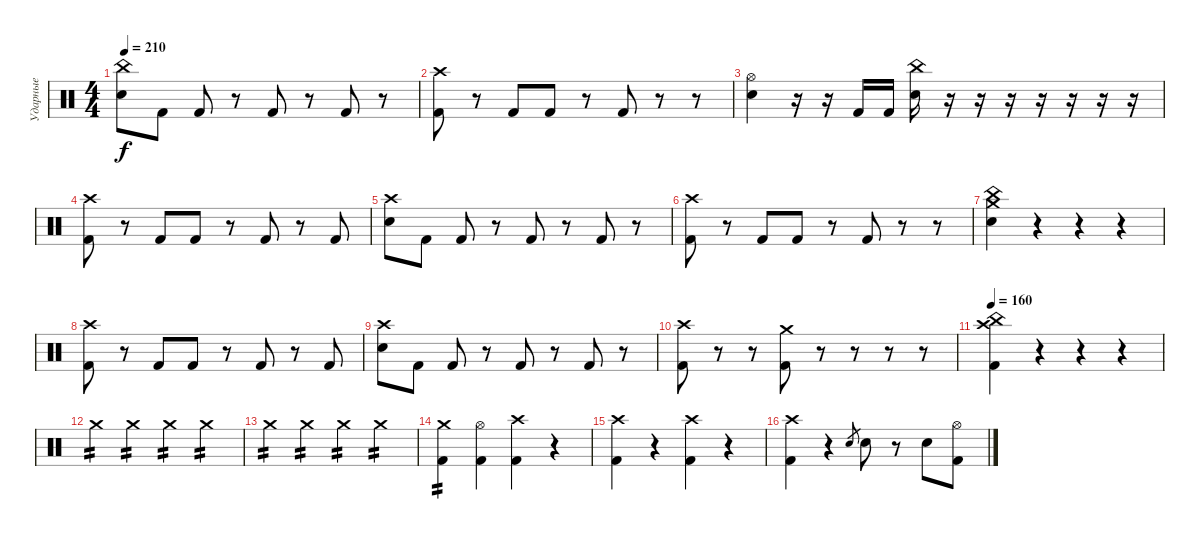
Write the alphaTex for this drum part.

\track ("Ударные" "Ударные") {instrument percussion}
\staff {score}
\articulation defaults
\ts (4 4)
\tempo 210
\clef neutral
\ks c
("Electric Snare (hit)" "China (hit)").8{dy f} "Kick (hit) 2".8 "Kick (hit) 2".8 r.8 "Kick (hit) 2".8 r.8 "Kick (hit) 2".8 r.8 |
("Kick (hit) 2" "Crash high (hit)").8 r.8 "Kick (hit) 2".8 "Kick (hit) 2".8 r.8 "Kick (hit) 2".8 r.8 r.8 |
("Electric Snare (hit)" "Hi-Hat (open)").4 r.16 r.16 "Kick (hit) 2".16 "Kick (hit) 2".16 ("Electric Snare (hit)" "China (hit)").16 r.16 r.16 r.16 r.16 r.16 r.16 r.16 |
("Kick (hit) 2" "Crash high (hit)").8 r.8 "Kick (hit) 2".8 "Kick (hit) 2".8 r.8 "Kick (hit) 2".8 r.8 "Kick (hit) 2".8 |
("Electric Snare (hit)" "Crash high (hit)").8 "Kick (hit) 2".8 "Kick (hit) 2".8 r.8 "Kick (hit) 2".8 r.8 "Kick (hit) 2".8 r.8 |
("Kick (hit) 2" "Crash high (hit)").8 r.8 "Kick (hit) 2".8 "Kick (hit) 2".8 r.8 "Kick (hit) 2".8 r.8 r.8 |
("Electric Snare (hit)" "Crash medium (hit)" "China (hit)").4 r.4 r.4 r.4 |
("Kick (hit) 2" "Crash high (hit)").8 r.8 "Kick (hit) 2".8 "Kick (hit) 2".8 r.8 "Kick (hit) 2".8 r.8 "Kick (hit) 2".8 |
("Electric Snare (hit)" "Crash high (hit)").8 "Kick (hit) 2".8 "Kick (hit) 2".8 r.8 "Kick (hit) 2".8 r.8 "Kick (hit) 2".8 r.8 |
("Kick (hit) 2" "Crash high (hit)").8 r.8 r.8 ("Kick (hit) 2" "Crash medium (hit)").8 r.8 r.8 r.8 r.8 |
\tempo 160
("Kick (hit) 2" "China (hit)" "Crash high (hit)").4 r.4 r.4 r.4 |
"Crash medium (hit)".4{tp 2 volume 4} "Crash medium (hit)".4{tp 2} "Crash medium (hit)".4{tp 2 volume 16} "Crash medium (hit)".4{tp 2} |
"Crash medium (hit)".4{tp 2} "Crash medium (hit)".4{tp 2} "Crash medium (hit)".4{tp 2} "Crash medium (hit)".4{tp 2} |
("Crash medium (hit)" "Kick (hit) 2").4{tp 2} ("Kick (hit) 2" "Hi-Hat (open)").4 ("Kick (hit) 2" "Crash high (hit)").4 r.4 |
("Kick (hit) 2" "Crash high (hit)").4 r.4 ("Kick (hit) 2" "Crash high (hit)").4 r.4 |
("Kick (hit) 2" "Crash high (hit)").4 r.4 "Electric Snare (hit)".8{gr} "Electric Snare (hit)".8 r.8 "Electric Snare (hit)".8 ("Kick (hit) 2" "Hi-Hat (open)").8
